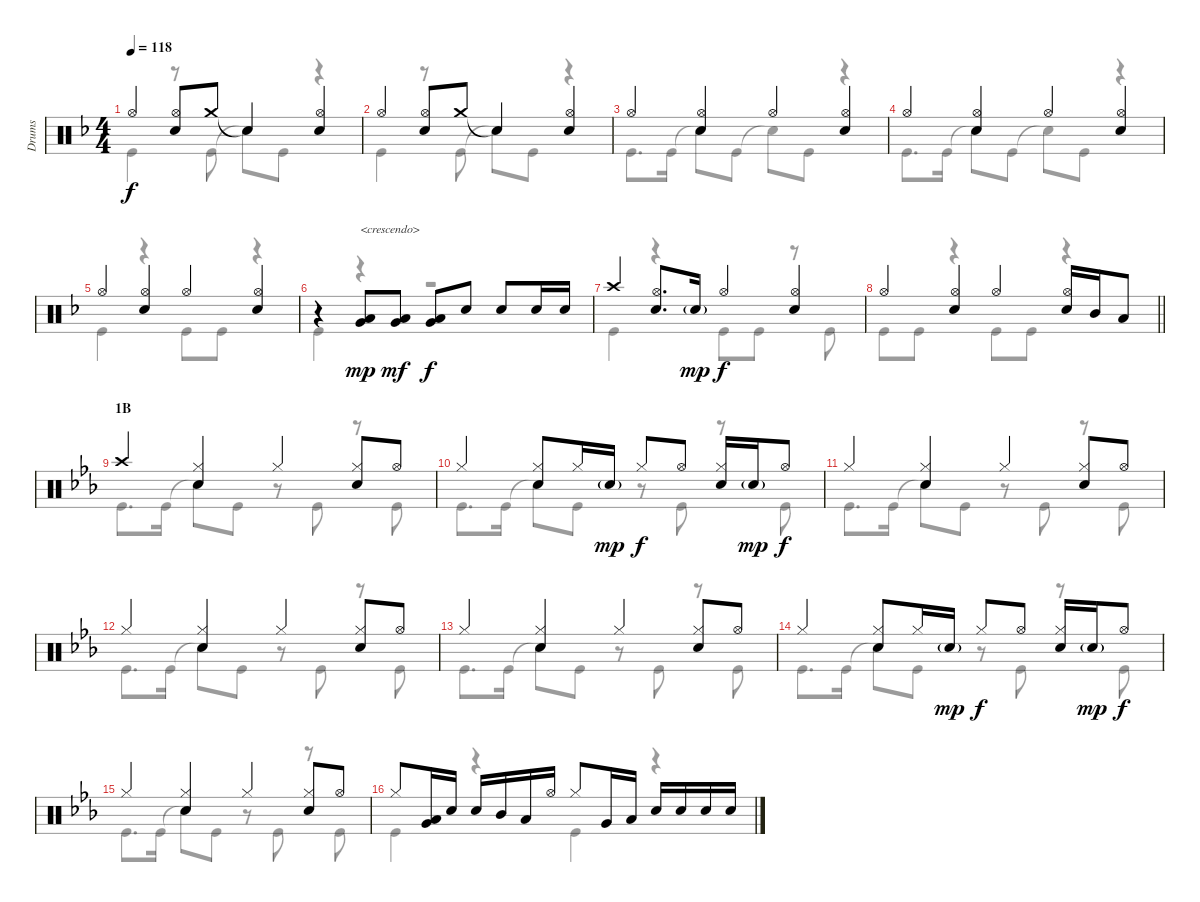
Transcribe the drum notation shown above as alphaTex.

\track ("Drums" "Drums") {instrument percussion}
\staff {score}
\articulation defaults
\voice
\ts (4 4)
\tempo 118
\clef neutral
\ks f "Hi-Hat (open)".4{dy f}
("Hi-Hat (open)" "Snare (hit) 2").8 "Crash medium (hit)".8 "Snare (hit)"{t}.4 ("Hi-Hat (open)" "Snare (hit) 2").4 |
"Hi-Hat (open)".4 ("Hi-Hat (open)" "Snare (hit) 2").8 "Crash medium (hit)".8 "Snare (hit)"{t}.4 ("Hi-Hat (open)" "Snare (hit) 2").4 |
"Hi-Hat (open)".4 ("Hi-Hat (open)" "Snare (hit) 2").4 "Hi-Hat (open)".4 ("Hi-Hat (open)" "Snare (hit) 2").4 |
"Hi-Hat (open)".4 ("Hi-Hat (open)" "Snare (hit) 2").4 "Hi-Hat (open)".4 ("Hi-Hat (open)" "Snare (hit) 2").4 |
"Hi-Hat (open)".4 ("Hi-Hat (open)" "Snare (hit) 2").4 "Hi-Hat (open)".4 ("Hi-Hat (open)" "Snare (hit) 2").4 |
r.4 ("Very Low Tom (hit)" "Low Tom (hit)").8{txt "<crescendo>" dy mp} ("Very Low Tom (hit)" "Low Tom (hit)").8{dy mf} ("Very Low Tom (hit)" "Low Tom (hit)").8{dy f} "Snare (hit) 2".8 "Snare (hit) 2".8 "Snare (hit) 2".16 "Snare (hit) 2".16 |
"Crash high (hit)".4 ("Hi-Hat (open)" "Snare (hit) 2").8{d} "Snare (hit) 2"{g}.16{dy mp} "Hi-Hat (open)".4{dy f} ("Hi-Hat (open)" "Snare (hit) 2").4 |
\barLineRight lightlight "Hi-Hat (open)".4
("Hi-Hat (open)" "Snare (hit) 2").4 "Hi-Hat (open)".4 ("Hi-Hat (open)" "Snare (hit) 2").16 "Mid Tom (hit)".16 "Low Tom (hit)".8 |
\section ("" "1B")
\ks eb "Crash high (hit)".4
("Hi-Hat (closed)" "Snare (hit) 2").4 "Hi-Hat (closed)".4 ("Hi-Hat (closed)" "Snare (hit) 2").8 "Hi-Hat (open)".8 |
"Hi-Hat (closed)".4 ("Hi-Hat (closed)" "Snare (hit) 2").8 "Hi-Hat (closed)".16 "Snare (hit) 2"{g}.16{dy mp} "Hi-Hat (closed)".8{dy f} "Hi-Hat (open)".8 ("Hi-Hat (closed)" "Snare (hit) 2").16 "Snare (hit) 2"{g}.16{dy mp} "Hi-Hat (open)".8{dy f} |
"Hi-Hat (closed)".4 ("Hi-Hat (closed)" "Snare (hit) 2").4 "Hi-Hat (closed)".4 ("Hi-Hat (closed)" "Snare (hit) 2").8 "Hi-Hat (open)".8 |
"Hi-Hat (closed)".4 ("Hi-Hat (closed)" "Snare (hit) 2").4 "Hi-Hat (closed)".4 ("Hi-Hat (closed)" "Snare (hit) 2").8 "Hi-Hat (open)".8 |
"Hi-Hat (closed)".4 ("Hi-Hat (closed)" "Snare (hit) 2").4 "Hi-Hat (closed)".4 ("Hi-Hat (closed)" "Snare (hit) 2").8 "Hi-Hat (open)".8 |
"Hi-Hat (closed)".4 ("Hi-Hat (closed)" "Snare (hit) 2").8 "Hi-Hat (closed)".16 "Snare (hit) 2"{g}.16{dy mp} "Hi-Hat (closed)".8{dy f} "Hi-Hat (open)".8 ("Hi-Hat (closed)" "Snare (hit) 2").16 "Snare (hit) 2"{g}.16{dy mp} "Hi-Hat (open)".8{dy f} |
"Hi-Hat (closed)".4 ("Hi-Hat (closed)" "Snare (hit) 2").4 "Hi-Hat (closed)".4 ("Hi-Hat (closed)" "Snare (hit) 2").8 "Hi-Hat (open)".8 |
"Hi-Hat (closed)".8 ("Low Tom (hit)" "Very Low Tom (hit)").16 "Snare (hit) 2".16 "Snare (hit) 2".16 "Mid Tom (hit)".16 "Low Tom (hit)".16 "Hi-Hat (open)".16 "Hi-Hat (closed)".8 "Very Low Tom (hit)".16 "Low Tom (hit)".16 "Snare (hit) 2".16 "Snare (hit) 2".16 "Snare (hit) 2".16 "Snare (hit) 2".16
\voice
\clef neutral
\ottava regular
\simile none
\ks f "Kick (hit)".4{dy f}
r.8 "Kick (hit)".8 "Snare (hit)"{t}.8 "Kick (hit)".8 r.4 |
"Kick (hit)".4 r.8 "Kick (hit)".8 "Snare (hit)"{t}.8 "Kick (hit)".8 r.4 |
"Kick (hit)".8{d} "Kick (hit)".16 "Snare (hit)"{t}.8 "Kick (hit)".8 "Snare (hit)"{t}.8 "Kick (hit)".8 r.4 |
"Kick (hit)".8{d} "Kick (hit)".16 "Snare (hit)"{t}.8 "Kick (hit)".8 "Snare (hit)"{t}.8 "Kick (hit)".8 r.4 |
"Kick (hit)".4 r.4 "Kick (hit)".8 "Kick (hit)".8 r.4 |
"Kick (hit)".4 r.4 r.2 |
"Kick (hit)".4 r.4 "Kick (hit)".8 "Kick (hit)".8 r.8 "Kick (hit)".8 |
\barLineRight lightlight "Kick (hit)".8 "Kick (hit)".8
r.4 "Kick (hit)".8 "Kick (hit)".8 r.4 |
\ks eb "Kick (hit)".8{d} "Kick (hit)".16 "Snare (hit)"{t}.8 "Kick (hit)".8
r.8 "Kick (hit)".8 r.8 "Kick (hit)".8 |
"Kick (hit)".8{d} "Kick (hit)".16 "Snare (hit)"{t}.8 "Kick (hit)".8 r.8 "Kick (hit)".8 r.8 "Kick (hit)".8 |
"Kick (hit)".8{d} "Kick (hit)".16 "Snare (hit)"{t}.8 "Kick (hit)".8 r.8 "Kick (hit)".8 r.8 "Kick (hit)".8 |
"Kick (hit)".8{d} "Kick (hit)".16 "Snare (hit)"{t}.8 "Kick (hit)".8 r.8 "Kick (hit)".8 r.8 "Kick (hit)".8 |
"Kick (hit)".8{d} "Kick (hit)".16 "Snare (hit)"{t}.8 "Kick (hit)".8 r.8 "Kick (hit)".8 r.8 "Kick (hit)".8 |
"Kick (hit)".8{d} "Kick (hit)".16 "Snare (hit)"{t}.8 "Kick (hit)".8 r.8 "Kick (hit)".8 r.8 "Kick (hit)".8 |
"Kick (hit)".8{d} "Kick (hit)".16 "Snare (hit)"{t}.8 "Kick (hit)".8 r.8 "Kick (hit)".8 r.8 "Kick (hit)".8 |
"Kick (hit)".4 r.4 "Kick (hit)".4 r.4
